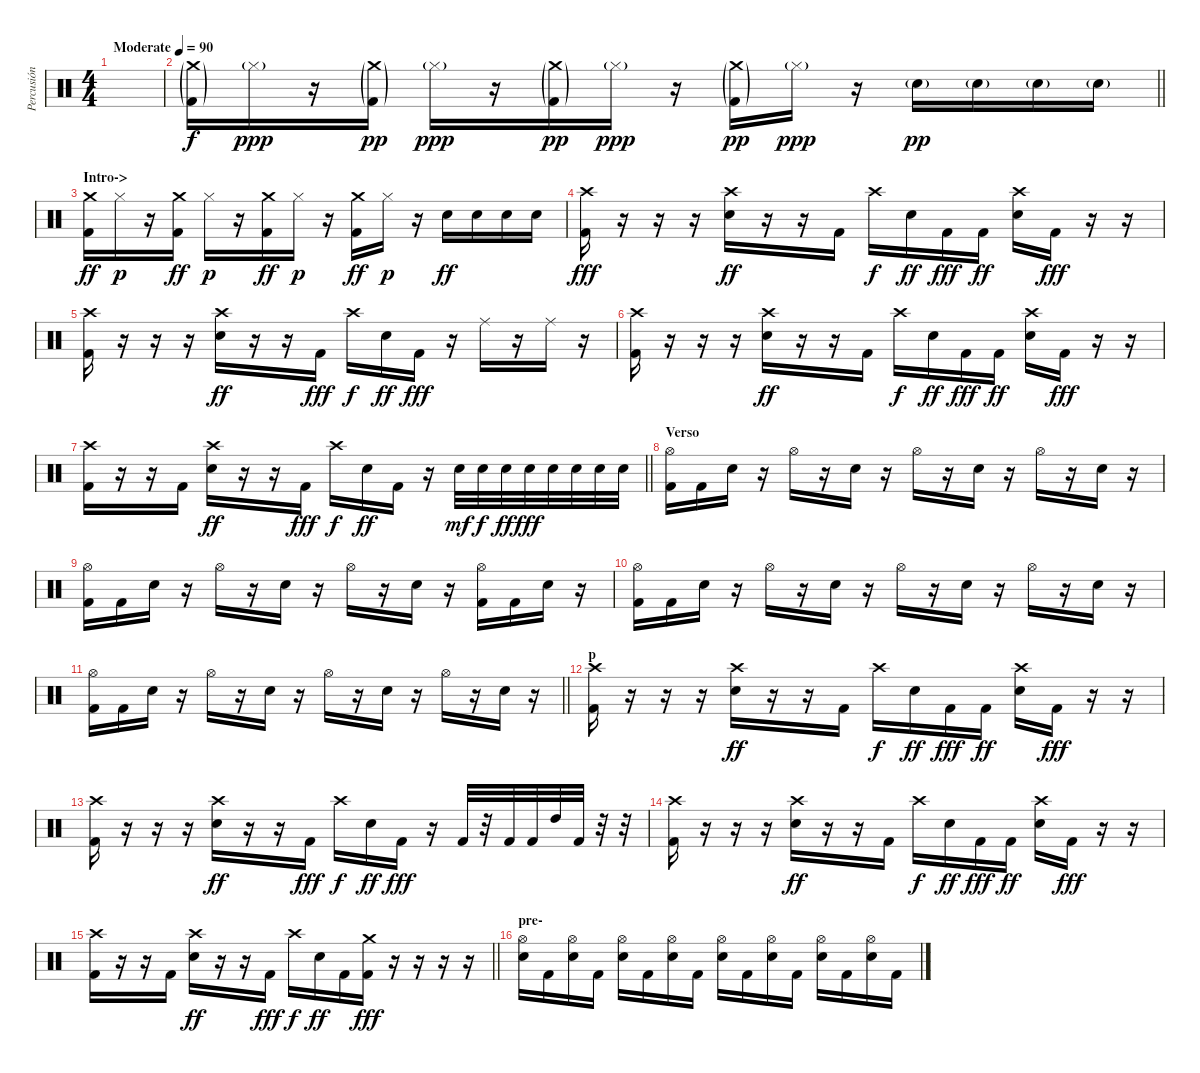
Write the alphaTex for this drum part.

\track ("Percusión" "Percusión") {instrument percussion}
\staff {score}
\articulation defaults
\ts (4 4)
\tempo (90 "Moderate")
\clef neutral
\ks c
|
\barLineRight lightlight
("Crash medium (hit)"{g} "Kick (hit) 2"{g}).16 "Hi-Hat (closed)"{g}.16{dy ppp} r.16 ("Crash medium (hit)"{g} "Kick (hit) 2"{g}).16{dy pp} "Hi-Hat (closed)"{g}.16{dy ppp} r.16 ("Crash medium (hit)"{g} "Kick (hit) 2"{g}).16{dy pp} "Hi-Hat (closed)"{g}.16{dy ppp} r.16 ("Crash medium (hit)"{g} "Kick (hit) 2"{g}).16{dy pp} "Hi-Hat (closed)"{g}.16{dy ppp} r.16 "Electric Snare (hit)"{g}.16{dy pp} "Electric Snare (hit)"{g}.16 "Electric Snare (hit)"{g}.16 "Electric Snare (hit)"{g}.16 |
\section ("" "Intro->")
("Crash medium (hit)" "Kick (hit) 2").16{dy ff} "Hi-Hat (closed)".16{dy p} r.16 ("Crash medium (hit)" "Kick (hit) 2").16{dy ff} "Hi-Hat (closed)".16{dy p} r.16 ("Crash medium (hit)" "Kick (hit) 2").16{dy ff} "Hi-Hat (closed)".16{dy p} r.16 ("Crash medium (hit)" "Kick (hit) 2").16{dy ff} "Hi-Hat (closed)".16{dy p} r.16 "Electric Snare (hit)".16{dy ff} "Electric Snare (hit)".16 "Electric Snare (hit)".16 "Electric Snare (hit)".16 |
("Crash high (hit)" "Kick (hit) 2").16{dy fff} r.16 r.16 r.16 ("Crash high (hit)" "Electric Snare (hit)").16{dy ff} r.16 r.16 "Kick (hit) 2".16 "Crash high (hit)".16{dy f} "Electric Snare (hit)".16{dy ff} "Kick (hit) 2".16{dy fff} "Kick (hit) 2".16{dy ff} ("Crash high (hit)" "Electric Snare (hit)").16 "Kick (hit) 2".16{dy fff} r.16 r.16 |
("Crash high (hit)" "Kick (hit) 2").16 r.16 r.16 r.16 ("Crash high (hit)" "Electric Snare (hit)").16{dy ff} r.16 r.16 "Kick (hit) 2".16{dy fff} "Crash high (hit)".16{dy f} "Electric Snare (hit)".16{dy ff} "Kick (hit) 2".16{dy fff} r.16 "Ride (middle)".16 r.16 "Ride (middle)".16 r.16 |
("Crash high (hit)" "Kick (hit) 2").16 r.16 r.16 r.16 ("Crash high (hit)" "Electric Snare (hit)").16{dy ff} r.16 r.16 "Kick (hit) 2".16 "Crash high (hit)".16{dy f} "Electric Snare (hit)".16{dy ff} "Kick (hit) 2".16{dy fff} "Kick (hit) 2".16{dy ff} ("Crash high (hit)" "Electric Snare (hit)").16 "Kick (hit) 2".16{dy fff} r.16 r.16 |
\barLineRight lightlight
("Crash high (hit)" "Kick (hit) 2").16 r.16 r.16 "Kick (hit) 2".16 ("Crash high (hit)" "Electric Snare (hit)").16{dy ff} r.16 r.16 "Kick (hit) 2".16{dy fff} "Crash high (hit)".16{dy f} "Electric Snare (hit)".16{dy ff} "Kick (hit) 2".16 r.16 "Electric Snare (hit)".32{dy mf} "Electric Snare (hit)".32{dy f} "Electric Snare (hit)".32{dy ff} "Electric Snare (hit)".32{dy fff} "Electric Snare (hit)".32 "Electric Snare (hit)".32 "Electric Snare (hit)".32 "Electric Snare (hit)".32 |
\section ("" "Verso")
("Hi-Hat (open)" "Kick (hit) 2").16 "Kick (hit) 2".16 "Electric Snare (hit)".16 r.16 "Hi-Hat (open)".16 r.16 "Electric Snare (hit)".16 r.16 "Hi-Hat (open)".16 r.16 "Electric Snare (hit)".16 r.16 "Hi-Hat (open)".16 r.16 "Electric Snare (hit)".16 r.16 |
("Hi-Hat (open)" "Kick (hit) 2").16 "Kick (hit) 2".16 "Electric Snare (hit)".16 r.16 "Hi-Hat (open)".16 r.16 "Electric Snare (hit)".16 r.16 "Hi-Hat (open)".16 r.16 "Electric Snare (hit)".16 r.16 ("Hi-Hat (open)" "Kick (hit) 2").16 "Kick (hit) 2".16 "Electric Snare (hit)".16 r.16 |
("Hi-Hat (open)" "Kick (hit) 2").16 "Kick (hit) 2".16 "Electric Snare (hit)".16 r.16 "Hi-Hat (open)".16 r.16 "Electric Snare (hit)".16 r.16 "Hi-Hat (open)".16 r.16 "Electric Snare (hit)".16 r.16 "Hi-Hat (open)".16 r.16 "Electric Snare (hit)".16 r.16 |
\barLineRight lightlight
("Hi-Hat (open)" "Kick (hit) 2").16 "Kick (hit) 2".16 "Electric Snare (hit)".16 r.16 "Hi-Hat (open)".16 r.16 "Electric Snare (hit)".16 r.16 "Hi-Hat (open)".16 r.16 "Electric Snare (hit)".16 r.16 "Hi-Hat (open)".16 r.16 "Electric Snare (hit)".16 r.16 |
\section ("" "p")
("Crash high (hit)" "Kick (hit) 2").16 r.16 r.16 r.16 ("Crash high (hit)" "Electric Snare (hit)").16{dy ff} r.16 r.16 "Kick (hit) 2".16 "Crash high (hit)".16{dy f} "Electric Snare (hit)".16{dy ff} "Kick (hit) 2".16{dy fff} "Kick (hit) 2".16{dy ff} ("Crash high (hit)" "Electric Snare (hit)").16 "Kick (hit) 2".16{dy fff} r.16 r.16 |
("Crash high (hit)" "Kick (hit) 2").16 r.16 r.16 r.16 ("Crash high (hit)" "Electric Snare (hit)").16{dy ff} r.16 r.16 "Kick (hit) 2".16{dy fff} "Crash high (hit)".16{dy f} "Electric Snare (hit)".16{dy ff} "Kick (hit) 2".16{dy fff} r.16 "Kick (hit) 2".32 r.32 "Kick (hit) 2".32 "Kick (hit) 2".32 "High Tom (hit)".32 "Kick (hit) 2".32 r.32 r.32 |
("Crash high (hit)" "Kick (hit) 2").16 r.16 r.16 r.16 ("Crash high (hit)" "Electric Snare (hit)").16{dy ff} r.16 r.16 "Kick (hit) 2".16 "Crash high (hit)".16{dy f} "Electric Snare (hit)".16{dy ff} "Kick (hit) 2".16{dy fff} "Kick (hit) 2".16{dy ff} ("Crash high (hit)" "Electric Snare (hit)").16 "Kick (hit) 2".16{dy fff} r.16 r.16 |
\barLineRight lightlight
("Crash high (hit)" "Kick (hit) 2").16 r.16 r.16 "Kick (hit) 2".16 ("Crash high (hit)" "Electric Snare (hit)").16{dy ff} r.16 r.16 "Kick (hit) 2".16{dy fff} "Crash high (hit)".16{dy f} "Electric Snare (hit)".16{dy ff} "Kick (hit) 2".16 ("Crash medium (hit)" "Kick (hit) 2").16{dy fff} r.16 r.16 r.16 r.16 |
\section ("" "pre-")
("Hi-Hat (open)" "Electric Snare (hit)").16 "Kick (hit) 2".16 ("Hi-Hat (open)" "Electric Snare (hit)").16 "Kick (hit) 2".16 ("Hi-Hat (open)" "Electric Snare (hit)").16 "Kick (hit) 2".16 ("Hi-Hat (open)" "Electric Snare (hit)").16 "Kick (hit) 2".16 ("Hi-Hat (open)" "Electric Snare (hit)").16 "Kick (hit) 2".16 ("Hi-Hat (open)" "Electric Snare (hit)").16 "Kick (hit) 2".16 ("Hi-Hat (open)" "Electric Snare (hit)").16 "Kick (hit) 2".16 ("Hi-Hat (open)" "Electric Snare (hit)").16 "Kick (hit) 2".16
